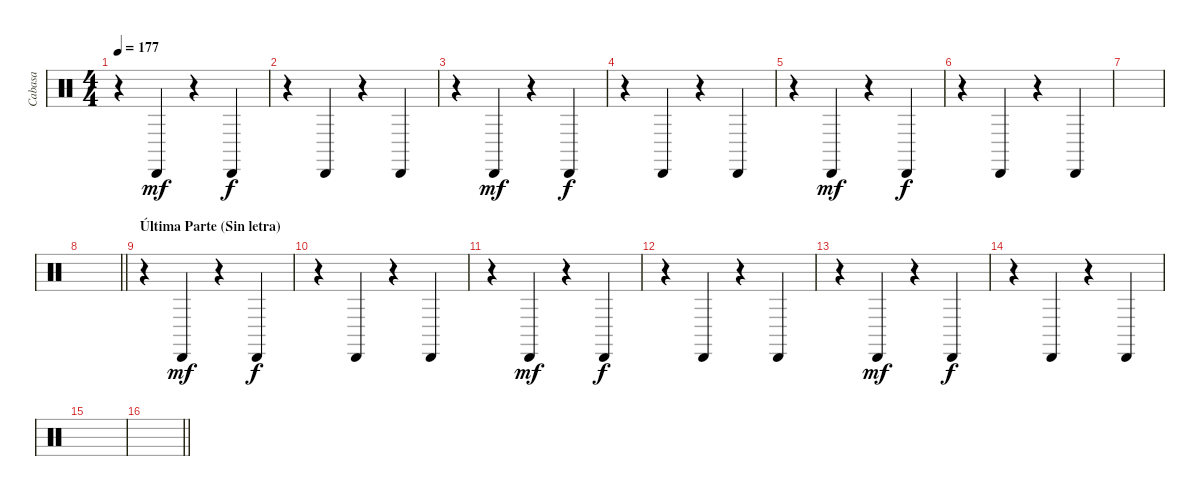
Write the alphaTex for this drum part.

\track ("Cabasa" "Cabasa") {instrument percussion}
\staff {score}
\articulation defaults
\ts (4 4)
\tempo 177
\clef neutral
\ks c
r.4{dy f} "Cabasa (hit)".4{dy mf} r.4 "Cabasa (hit)".4{dy f} |
r.4 "Cabasa (hit)".4 r.4 "Cabasa (hit)".4 |
r.4 "Cabasa (hit)".4{dy mf} r.4 "Cabasa (hit)".4{dy f} |
r.4 "Cabasa (hit)".4 r.4 "Cabasa (hit)".4 |
r.4 "Cabasa (hit)".4{dy mf} r.4 "Cabasa (hit)".4{dy f} |
r.4 "Cabasa (hit)".4 r.4 "Cabasa (hit)".4 |
|
\barLineRight lightlight
|
\section ("" "Última Parte (Sin letra)")
r.4 "Cabasa (hit)".4{dy mf} r.4 "Cabasa (hit)".4{dy f} |
r.4 "Cabasa (hit)".4 r.4 "Cabasa (hit)".4 |
r.4 "Cabasa (hit)".4{dy mf} r.4 "Cabasa (hit)".4{dy f} |
r.4 "Cabasa (hit)".4 r.4 "Cabasa (hit)".4 |
r.4 "Cabasa (hit)".4{dy mf} r.4 "Cabasa (hit)".4{dy f} |
r.4 "Cabasa (hit)".4 r.4 "Cabasa (hit)".4 |
|
\barLineRight lightlight
